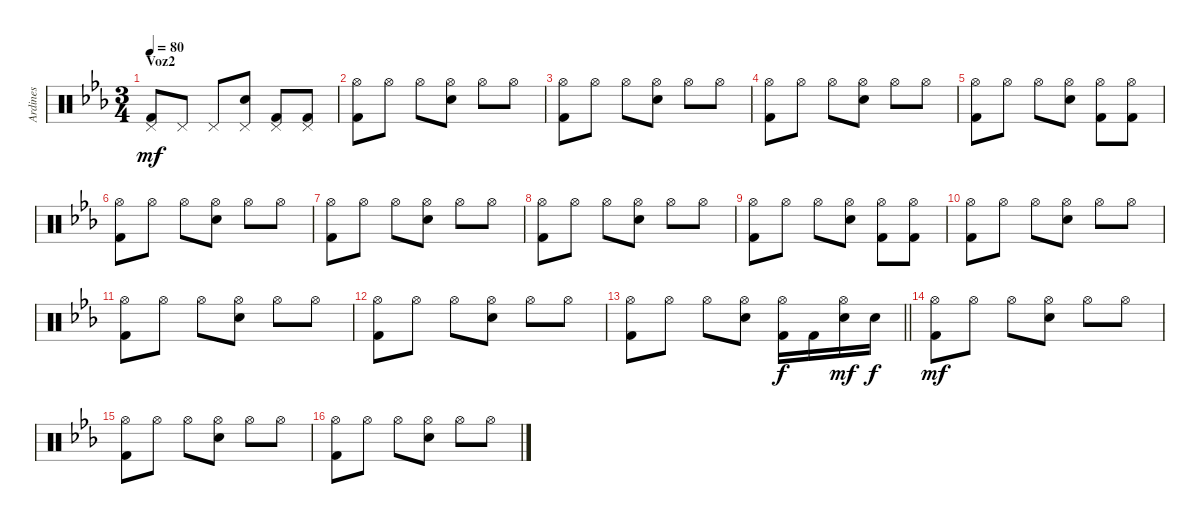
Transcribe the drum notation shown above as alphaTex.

\track ("Ardines" "Ardines") {instrument percussion}
\staff {score}
\articulation defaults
\ts (3 4)
\section ("" "Voz2")
\tempo 80
\clef neutral
\ks eb
("Kick (hit) 2" "Pedal Hi-Hat (hit)").8{dy mf} "Pedal Hi-Hat (hit)".8 "Pedal Hi-Hat (hit)".8 ("Snare (hit) 2" "Pedal Hi-Hat (hit)").8 ("Kick (hit) 2" "Pedal Hi-Hat (hit)").8 ("Kick (hit) 2" "Pedal Hi-Hat (hit)").8 |
("Kick (hit) 2" "Hi-Hat (open)").8 "Hi-Hat (open)".8 "Hi-Hat (open)".8 ("Snare (hit) 2" "Hi-Hat (open)").8 "Hi-Hat (open)".8 "Hi-Hat (open)".8 |
("Kick (hit) 2" "Hi-Hat (open)").8 "Hi-Hat (open)".8 "Hi-Hat (open)".8 ("Snare (hit) 2" "Hi-Hat (open)").8 "Hi-Hat (open)".8 "Hi-Hat (open)".8 |
("Kick (hit) 2" "Hi-Hat (open)").8 "Hi-Hat (open)".8 "Hi-Hat (open)".8 ("Snare (hit) 2" "Hi-Hat (open)").8 "Hi-Hat (open)".8 "Hi-Hat (open)".8 |
("Kick (hit) 2" "Hi-Hat (open)").8 "Hi-Hat (open)".8 "Hi-Hat (open)".8 ("Snare (hit) 2" "Hi-Hat (open)").8 ("Kick (hit) 2" "Hi-Hat (open)").8 ("Kick (hit) 2" "Hi-Hat (open)").8 |
("Kick (hit) 2" "Hi-Hat (open)").8 "Hi-Hat (open)".8 "Hi-Hat (open)".8 ("Snare (hit) 2" "Hi-Hat (open)").8 "Hi-Hat (open)".8 "Hi-Hat (open)".8 |
("Kick (hit) 2" "Hi-Hat (open)").8 "Hi-Hat (open)".8 "Hi-Hat (open)".8 ("Snare (hit) 2" "Hi-Hat (open)").8 "Hi-Hat (open)".8 "Hi-Hat (open)".8 |
("Kick (hit) 2" "Hi-Hat (open)").8 "Hi-Hat (open)".8 "Hi-Hat (open)".8 ("Snare (hit) 2" "Hi-Hat (open)").8 "Hi-Hat (open)".8 "Hi-Hat (open)".8 |
("Kick (hit) 2" "Hi-Hat (open)").8 "Hi-Hat (open)".8 "Hi-Hat (open)".8 ("Snare (hit) 2" "Hi-Hat (open)").8 ("Kick (hit) 2" "Hi-Hat (open)").8 ("Kick (hit) 2" "Hi-Hat (open)").8 |
("Kick (hit) 2" "Hi-Hat (open)").8 "Hi-Hat (open)".8 "Hi-Hat (open)".8 ("Snare (hit) 2" "Hi-Hat (open)").8 "Hi-Hat (open)".8 "Hi-Hat (open)".8 |
("Kick (hit) 2" "Hi-Hat (open)").8 "Hi-Hat (open)".8 "Hi-Hat (open)".8 ("Snare (hit) 2" "Hi-Hat (open)").8 "Hi-Hat (open)".8 "Hi-Hat (open)".8 |
("Kick (hit) 2" "Hi-Hat (open)").8 "Hi-Hat (open)".8 "Hi-Hat (open)".8 ("Snare (hit) 2" "Hi-Hat (open)").8 "Hi-Hat (open)".8 "Hi-Hat (open)".8 |
\barLineRight lightlight
("Kick (hit) 2" "Hi-Hat (open)").8 "Hi-Hat (open)".8 "Hi-Hat (open)".8 ("Snare (hit) 2" "Hi-Hat (open)").8 ("Kick (hit) 2" "Hi-Hat (open)").16{dy f} "Kick (hit) 2".16 ("Snare (hit) 2" "Hi-Hat (open)").16{dy mf} "Snare (hit) 2".16{dy f} |
\section ("" "")
("Kick (hit) 2" "Hi-Hat (open)").8{dy mf} "Hi-Hat (open)".8 "Hi-Hat (open)".8 ("Snare (hit) 2" "Hi-Hat (open)").8 "Hi-Hat (open)".8 "Hi-Hat (open)".8 |
("Kick (hit) 2" "Hi-Hat (open)").8 "Hi-Hat (open)".8 "Hi-Hat (open)".8 ("Snare (hit) 2" "Hi-Hat (open)").8 "Hi-Hat (open)".8 "Hi-Hat (open)".8 |
("Kick (hit) 2" "Hi-Hat (open)").8 "Hi-Hat (open)".8 "Hi-Hat (open)".8 ("Snare (hit) 2" "Hi-Hat (open)").8 "Hi-Hat (open)".8 "Hi-Hat (open)".8
